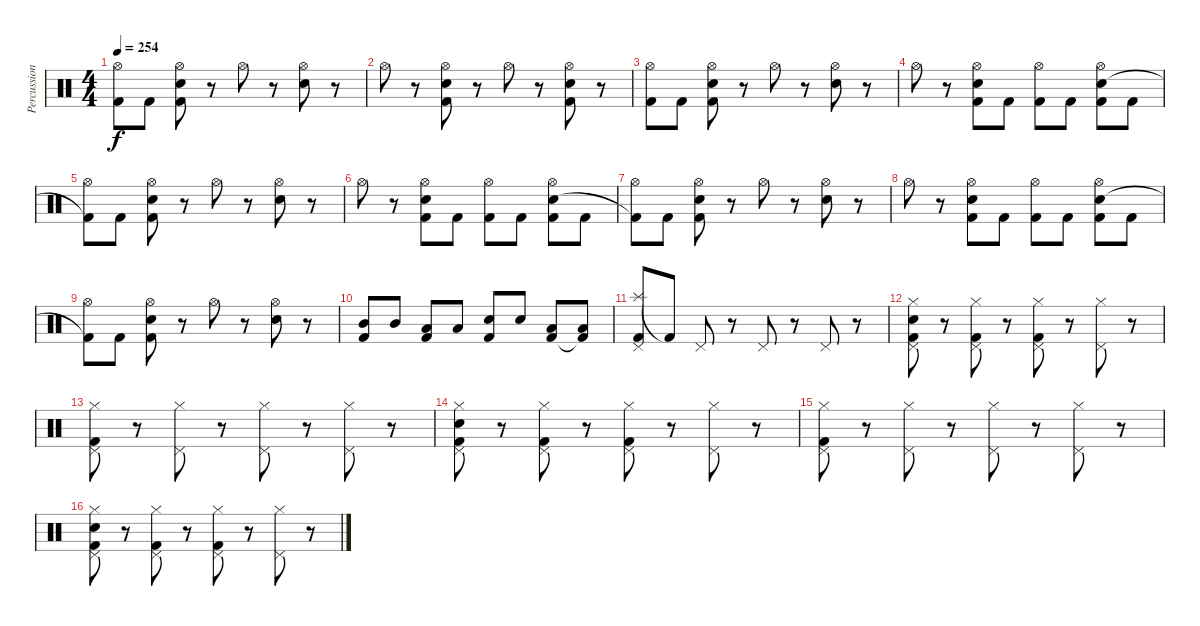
\track ("Percussion" "Percussion") {instrument percussion}
\staff {score}
\articulation defaults
\ts (4 4)
\tempo 254
\clef neutral
\ks c
("Hi-Hat (open)" "Kick (hit) 2"{t}).8{dy f} "Kick (hit) 2".8 ("Hi-Hat (open)" "Electric Snare (hit)" "Kick (hit) 2").8 r.8 "Hi-Hat (open)".8 r.8 ("Hi-Hat (open)" "Electric Snare (hit)").8 r.8 |
"Hi-Hat (open)".8 r.8 ("Hi-Hat (open)" "Electric Snare (hit)" "Kick (hit) 2").8 r.8 "Hi-Hat (open)".8 r.8 ("Hi-Hat (open)" "Electric Snare (hit)" "Kick (hit) 2").8 r.8 |
("Hi-Hat (open)" "Kick (hit) 2").8 "Kick (hit) 2".8 ("Hi-Hat (open)" "Electric Snare (hit)" "Kick (hit) 2").8 r.8 "Hi-Hat (open)".8 r.8 ("Hi-Hat (open)" "Electric Snare (hit)").8 r.8 |
"Hi-Hat (open)".8 r.8 ("Hi-Hat (open)" "Electric Snare (hit)" "Kick (hit) 2").8 "Kick (hit) 2".8 ("Hi-Hat (open)" "Kick (hit) 2").8 "Kick (hit) 2".8 ("Hi-Hat (open)" "Electric Snare (hit)" "Kick (hit) 2").8 "Kick (hit) 2".8 |
("Hi-Hat (open)" "Kick (hit) 2"{t}).8 "Kick (hit) 2".8 ("Hi-Hat (open)" "Electric Snare (hit)" "Kick (hit) 2").8 r.8 "Hi-Hat (open)".8 r.8 ("Hi-Hat (open)" "Electric Snare (hit)").8 r.8 |
"Hi-Hat (open)".8 r.8 ("Hi-Hat (open)" "Electric Snare (hit)" "Kick (hit) 2").8 "Kick (hit) 2".8 ("Hi-Hat (open)" "Kick (hit) 2").8 "Kick (hit) 2".8 ("Hi-Hat (open)" "Electric Snare (hit)" "Kick (hit) 2").8 "Kick (hit) 2".8 |
("Hi-Hat (open)" "Kick (hit) 2"{t}).8 "Kick (hit) 2".8 ("Hi-Hat (open)" "Electric Snare (hit)" "Kick (hit) 2").8 r.8 "Hi-Hat (open)".8 r.8 ("Hi-Hat (open)" "Electric Snare (hit)").8 r.8 |
"Hi-Hat (open)".8 r.8 ("Hi-Hat (open)" "Electric Snare (hit)" "Kick (hit) 2").8 "Kick (hit) 2".8 ("Hi-Hat (open)" "Kick (hit) 2").8 "Kick (hit) 2".8 ("Hi-Hat (open)" "Electric Snare (hit)" "Kick (hit) 2").8 "Kick (hit) 2".8 |
("Hi-Hat (open)" "Kick (hit) 2"{t}).8 "Kick (hit) 2".8 ("Hi-Hat (open)" "Electric Snare (hit)" "Kick (hit) 2").8 r.8 "Hi-Hat (open)".8 r.8 ("Hi-Hat (open)" "Electric Snare (hit)").8 r.8 |
("Mid Tom (hit)" "Kick (hit) 2").8 "Mid Tom (hit)".8 ("Low Tom (hit)" "Kick (hit) 2").8 "Low Tom (hit)".8 ("Electric Snare (hit)" "Kick (hit) 2").8 "Electric Snare (hit)".8 ("Low Floor Tom (hit)" "Kick (hit) 2").8 ("Low Floor Tom (hit)" "Kick (hit) 2"{t}).8 |
("Splash (hit)" "Pedal Hi-Hat (hit)" "Kick (hit) 2").8 "Kick (hit) 2"{t}.8 "Pedal Hi-Hat (hit)".8 r.8 "Pedal Hi-Hat (hit)".8 r.8 "Pedal Hi-Hat (hit)".8 r.8 |
("Hi-Hat (closed)" "Pedal Hi-Hat (hit)" "Electric Snare (hit)" "Kick (hit) 2").8 r.8 ("Hi-Hat (closed)" "Pedal Hi-Hat (hit)" "Kick (hit) 2").8 r.8 ("Hi-Hat (closed)" "Pedal Hi-Hat (hit)" "Kick (hit) 2").8 r.8 ("Hi-Hat (closed)" "Pedal Hi-Hat (hit)").8 r.8 |
("Hi-Hat (closed)" "Pedal Hi-Hat (hit)" "Kick (hit) 2").8 r.8 ("Hi-Hat (closed)" "Pedal Hi-Hat (hit)").8 r.8 ("Hi-Hat (closed)" "Pedal Hi-Hat (hit)").8 r.8 ("Hi-Hat (closed)" "Pedal Hi-Hat (hit)").8 r.8 |
("Hi-Hat (closed)" "Pedal Hi-Hat (hit)" "Electric Snare (hit)" "Kick (hit) 2").8 r.8 ("Hi-Hat (closed)" "Pedal Hi-Hat (hit)" "Kick (hit) 2").8 r.8 ("Hi-Hat (closed)" "Pedal Hi-Hat (hit)" "Kick (hit) 2").8 r.8 ("Hi-Hat (closed)" "Pedal Hi-Hat (hit)").8 r.8 |
("Hi-Hat (closed)" "Pedal Hi-Hat (hit)" "Kick (hit) 2").8 r.8 ("Hi-Hat (closed)" "Pedal Hi-Hat (hit)").8 r.8 ("Hi-Hat (closed)" "Pedal Hi-Hat (hit)").8 r.8 ("Hi-Hat (closed)" "Pedal Hi-Hat (hit)").8 r.8 |
("Hi-Hat (closed)" "Pedal Hi-Hat (hit)" "Electric Snare (hit)" "Kick (hit) 2").8 r.8 ("Hi-Hat (closed)" "Pedal Hi-Hat (hit)" "Kick (hit) 2").8 r.8 ("Hi-Hat (closed)" "Pedal Hi-Hat (hit)" "Kick (hit) 2").8 r.8 ("Hi-Hat (closed)" "Pedal Hi-Hat (hit)").8 r.8
